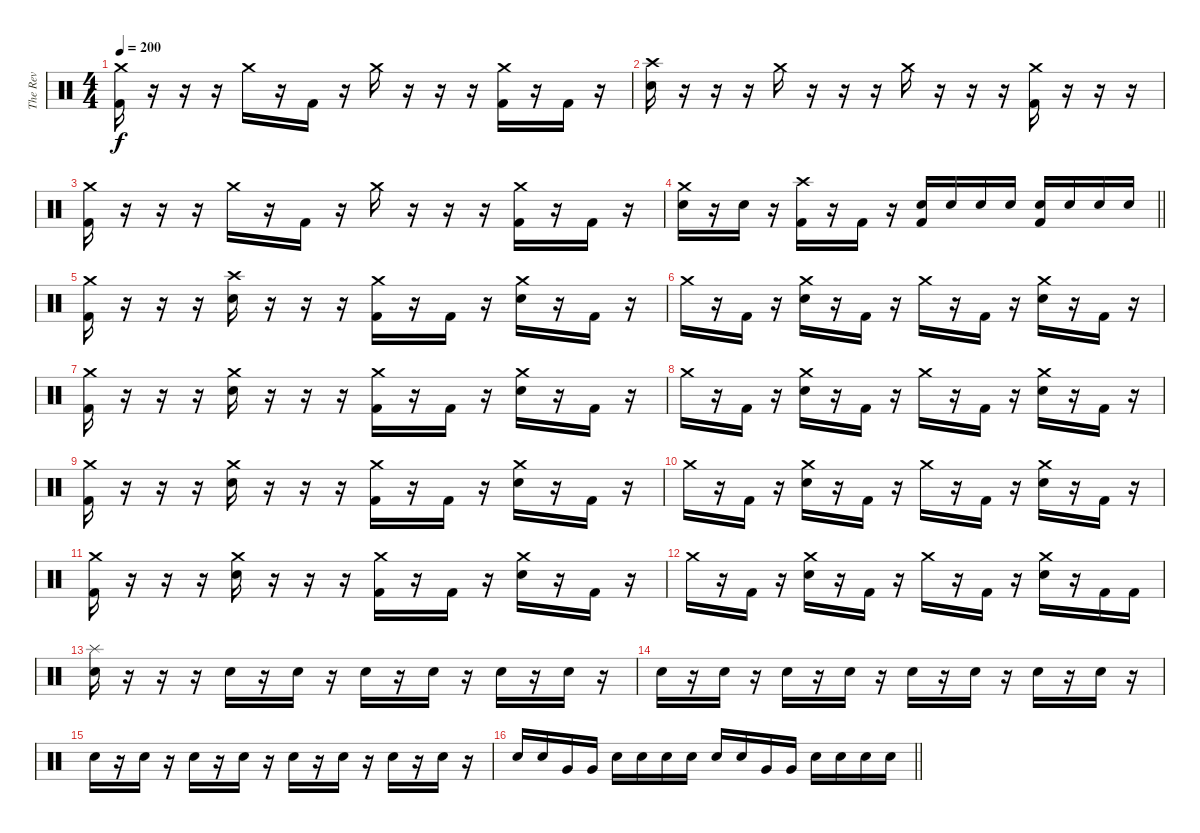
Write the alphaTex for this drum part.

\track ("The Rev" "The Rev") {instrument percussion}
\staff {score}
\articulation defaults
\ts (4 4)
\tempo 200
\clef neutral
\ks c
("Crash medium (hit)" "Kick (hit) 2").16{dy f} r.16 r.16 r.16 "Crash medium (hit)".16 r.16 "Kick (hit) 2".16 r.16 "Crash medium (hit)".16 r.16 r.16 r.16 ("Crash medium (hit)" "Kick (hit) 2").16 r.16 "Kick (hit) 2".16 r.16 |
("Crash high (hit)" "Electric Snare (hit)").16 r.16 r.16 r.16 "Crash medium (hit)".16 r.16 r.16 r.16 "Crash medium (hit)".16 r.16 r.16 r.16 ("Crash medium (hit)" "Kick (hit) 2").16 r.16 r.16 r.16 |
("Crash medium (hit)" "Kick (hit) 2").16 r.16 r.16 r.16 "Crash medium (hit)".16 r.16 "Kick (hit) 2".16 r.16 "Crash medium (hit)".16 r.16 r.16 r.16 ("Crash medium (hit)" "Kick (hit) 2").16 r.16 "Kick (hit) 2".16 r.16 |
\barLineRight lightlight
("Crash medium (hit)" "Electric Snare (hit)").16 r.16 "Electric Snare (hit)".16 r.16 ("Crash high (hit)" "Kick (hit) 2").16 r.16 "Kick (hit) 2".16 r.16 ("Electric Snare (hit)" "Kick (hit) 2").16 "Electric Snare (hit)".16 "Electric Snare (hit)".16 "Electric Snare (hit)".16 ("Electric Snare (hit)" "Kick (hit) 2").16 "Electric Snare (hit)".16 "Electric Snare (hit)".16 "Electric Snare (hit)".16 |
("Crash medium (hit)" "Kick (hit) 2").16 r.16 r.16 r.16 ("Crash high (hit)" "Electric Snare (hit)").16 r.16 r.16 r.16 ("Crash medium (hit)" "Kick (hit) 2").16 r.16 "Kick (hit) 2".16 r.16 ("Crash medium (hit)" "Electric Snare (hit)").16 r.16 "Kick (hit) 2".16 r.16 |
"Crash medium (hit)".16 r.16 "Kick (hit) 2".16 r.16 ("Crash medium (hit)" "Electric Snare (hit)").16 r.16 "Kick (hit) 2".16 r.16 "Crash medium (hit)".16 r.16 "Kick (hit) 2".16 r.16 ("Crash medium (hit)" "Electric Snare (hit)").16 r.16 "Kick (hit) 2".16 r.16 |
("Crash medium (hit)" "Kick (hit) 2").16 r.16 r.16 r.16 ("Crash medium (hit)" "Electric Snare (hit)").16 r.16 r.16 r.16 ("Crash medium (hit)" "Kick (hit) 2").16 r.16 "Kick (hit) 2".16 r.16 ("Crash medium (hit)" "Electric Snare (hit)").16 r.16 "Kick (hit) 2".16 r.16 |
"Crash medium (hit)".16 r.16 "Kick (hit) 2".16 r.16 ("Crash medium (hit)" "Electric Snare (hit)").16 r.16 "Kick (hit) 2".16 r.16 "Crash medium (hit)".16 r.16 "Kick (hit) 2".16 r.16 ("Crash medium (hit)" "Electric Snare (hit)").16 r.16 "Kick (hit) 2".16 r.16 |
("Crash medium (hit)" "Kick (hit) 2").16 r.16 r.16 r.16 ("Crash medium (hit)" "Electric Snare (hit)").16 r.16 r.16 r.16 ("Crash medium (hit)" "Kick (hit) 2").16 r.16 "Kick (hit) 2".16 r.16 ("Crash medium (hit)" "Electric Snare (hit)").16 r.16 "Kick (hit) 2".16 r.16 |
"Crash medium (hit)".16 r.16 "Kick (hit) 2".16 r.16 ("Crash medium (hit)" "Electric Snare (hit)").16 r.16 "Kick (hit) 2".16 r.16 "Crash medium (hit)".16 r.16 "Kick (hit) 2".16 r.16 ("Crash medium (hit)" "Electric Snare (hit)").16 r.16 "Kick (hit) 2".16 r.16 |
("Crash medium (hit)" "Kick (hit) 2").16 r.16 r.16 r.16 ("Crash medium (hit)" "Electric Snare (hit)").16 r.16 r.16 r.16 ("Crash medium (hit)" "Kick (hit) 2").16 r.16 "Kick (hit) 2".16 r.16 ("Crash medium (hit)" "Electric Snare (hit)").16 r.16 "Kick (hit) 2".16 r.16 |
"Crash medium (hit)".16 r.16 "Kick (hit) 2".16 r.16 ("Crash medium (hit)" "Electric Snare (hit)").16 r.16 "Kick (hit) 2".16 r.16 "Crash medium (hit)".16 r.16 "Kick (hit) 2".16 r.16 ("Crash medium (hit)" "Electric Snare (hit)").16 r.16 "Kick (hit) 2".16 "Kick (hit) 2".16 |
("Splash (hit)" "Electric Snare (hit)").16 r.16 r.16 r.16 "Electric Snare (hit)".16 r.16 "Electric Snare (hit)".16 r.16 "Electric Snare (hit)".16 r.16 "Electric Snare (hit)".16 r.16 "Electric Snare (hit)".16 r.16 "Electric Snare (hit)".16 r.16 |
"Electric Snare (hit)".16 r.16 "Electric Snare (hit)".16 r.16 "Electric Snare (hit)".16 r.16 "Electric Snare (hit)".16 r.16 "Electric Snare (hit)".16 r.16 "Electric Snare (hit)".16 r.16 "Electric Snare (hit)".16 r.16 "Electric Snare (hit)".16 r.16 |
"Electric Snare (hit)".16 r.16 "Electric Snare (hit)".16 r.16 "Electric Snare (hit)".16 r.16 "Electric Snare (hit)".16 r.16 "Electric Snare (hit)".16 r.16 "Electric Snare (hit)".16 r.16 "Electric Snare (hit)".16 r.16 "Electric Snare (hit)".16 r.16 |
\barLineRight lightlight "Electric Snare (hit)".16 "Electric Snare (hit)".16 "Very Low Tom (hit)".16 "Very Low Tom (hit)".16 "Electric Snare (hit)".16 "Electric Snare (hit)".16 "Electric Snare (hit)".16 "Electric Snare (hit)".16 "Electric Snare (hit)".16 "Electric Snare (hit)".16 "Very Low Tom (hit)".16 "Very Low Tom (hit)".16 "Electric Snare (hit)".16 "Electric Snare (hit)".16 "Electric Snare (hit)".16 "Electric Snare (hit)".16
